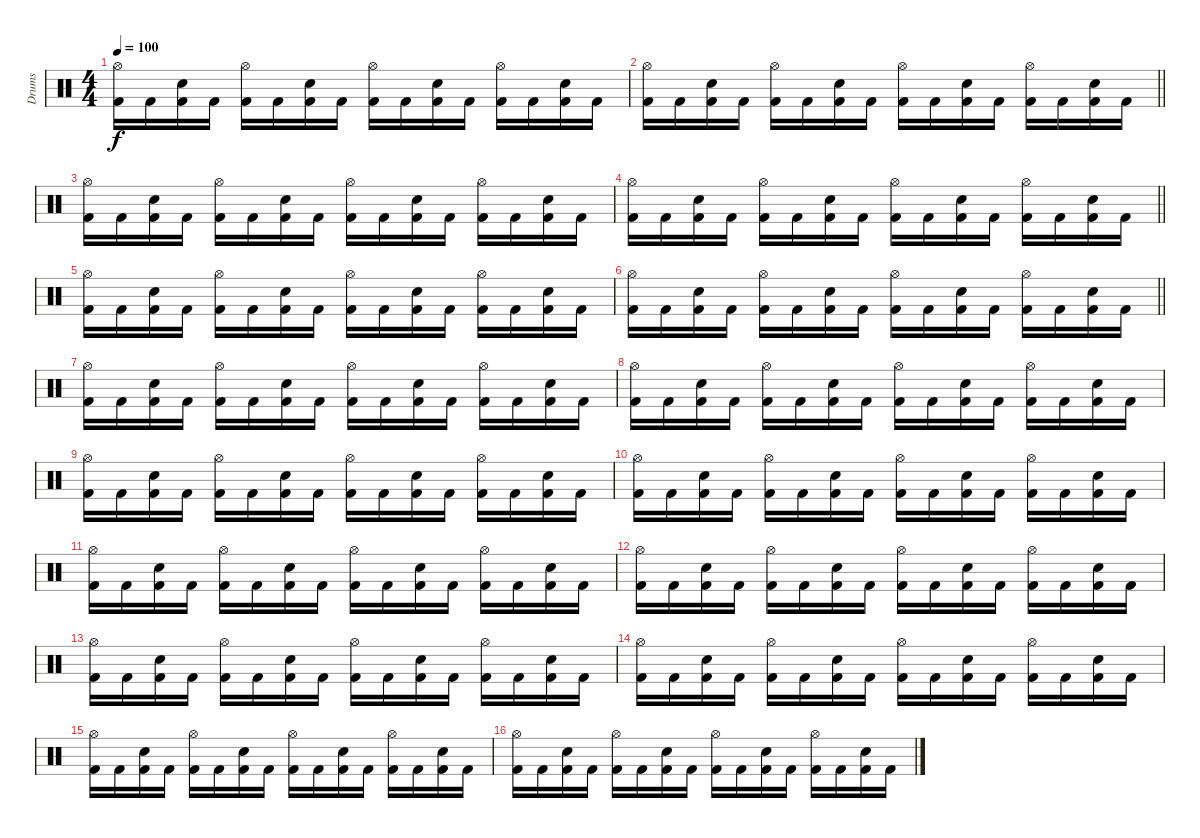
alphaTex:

\track ("Drums" "Drums") {instrument percussion}
\staff {score}
\articulation defaults
\ts (4 4)
\tempo 100
\clef neutral
\ks c
("Hi-Hat (open)" "Kick (hit) 2").16{dy f} "Kick (hit) 2".16 ("Snare (hit) 2" "Kick (hit) 2").16 "Kick (hit) 2".16 ("Hi-Hat (open)" "Kick (hit) 2").16 "Kick (hit) 2".16 ("Snare (hit) 2" "Kick (hit) 2").16 "Kick (hit) 2".16 ("Hi-Hat (open)" "Kick (hit) 2").16 "Kick (hit) 2".16 ("Snare (hit) 2" "Kick (hit) 2").16 "Kick (hit) 2".16 ("Hi-Hat (open)" "Kick (hit) 2").16 "Kick (hit) 2".16 ("Snare (hit) 2" "Kick (hit) 2").16 "Kick (hit) 2".16 |
\barLineRight lightlight
("Hi-Hat (open)" "Kick (hit) 2").16 "Kick (hit) 2".16 ("Snare (hit) 2" "Kick (hit) 2").16 "Kick (hit) 2".16 ("Hi-Hat (open)" "Kick (hit) 2").16 "Kick (hit) 2".16 ("Snare (hit) 2" "Kick (hit) 2").16 "Kick (hit) 2".16 ("Hi-Hat (open)" "Kick (hit) 2").16 "Kick (hit) 2".16 ("Snare (hit) 2" "Kick (hit) 2").16 "Kick (hit) 2".16 ("Hi-Hat (open)" "Kick (hit) 2").16 "Kick (hit) 2".16 ("Snare (hit) 2" "Kick (hit) 2").16 "Kick (hit) 2".16 |
("Hi-Hat (open)" "Kick (hit) 2").16 "Kick (hit) 2".16 ("Snare (hit) 2" "Kick (hit) 2").16 "Kick (hit) 2".16 ("Hi-Hat (open)" "Kick (hit) 2").16 "Kick (hit) 2".16 ("Snare (hit) 2" "Kick (hit) 2").16 "Kick (hit) 2".16 ("Hi-Hat (open)" "Kick (hit) 2").16 "Kick (hit) 2".16 ("Snare (hit) 2" "Kick (hit) 2").16 "Kick (hit) 2".16 ("Hi-Hat (open)" "Kick (hit) 2").16 "Kick (hit) 2".16 ("Snare (hit) 2" "Kick (hit) 2").16 "Kick (hit) 2".16 |
\barLineRight lightlight
("Hi-Hat (open)" "Kick (hit) 2").16 "Kick (hit) 2".16 ("Snare (hit) 2" "Kick (hit) 2").16 "Kick (hit) 2".16 ("Hi-Hat (open)" "Kick (hit) 2").16 "Kick (hit) 2".16 ("Snare (hit) 2" "Kick (hit) 2").16 "Kick (hit) 2".16 ("Hi-Hat (open)" "Kick (hit) 2").16 "Kick (hit) 2".16 ("Snare (hit) 2" "Kick (hit) 2").16 "Kick (hit) 2".16 ("Hi-Hat (open)" "Kick (hit) 2").16 "Kick (hit) 2".16 ("Snare (hit) 2" "Kick (hit) 2").16 "Kick (hit) 2".16 |
("Hi-Hat (open)" "Kick (hit) 2").16 "Kick (hit) 2".16 ("Snare (hit) 2" "Kick (hit) 2").16 "Kick (hit) 2".16 ("Hi-Hat (open)" "Kick (hit) 2").16 "Kick (hit) 2".16 ("Snare (hit) 2" "Kick (hit) 2").16 "Kick (hit) 2".16 ("Hi-Hat (open)" "Kick (hit) 2").16 "Kick (hit) 2".16 ("Snare (hit) 2" "Kick (hit) 2").16 "Kick (hit) 2".16 ("Hi-Hat (open)" "Kick (hit) 2").16 "Kick (hit) 2".16 ("Snare (hit) 2" "Kick (hit) 2").16 "Kick (hit) 2".16 |
\barLineRight lightlight
("Hi-Hat (open)" "Kick (hit) 2").16 "Kick (hit) 2".16 ("Snare (hit) 2" "Kick (hit) 2").16 "Kick (hit) 2".16 ("Hi-Hat (open)" "Kick (hit) 2").16 "Kick (hit) 2".16 ("Snare (hit) 2" "Kick (hit) 2").16 "Kick (hit) 2".16 ("Hi-Hat (open)" "Kick (hit) 2").16 "Kick (hit) 2".16 ("Snare (hit) 2" "Kick (hit) 2").16 "Kick (hit) 2".16 ("Hi-Hat (open)" "Kick (hit) 2").16 "Kick (hit) 2".16 ("Snare (hit) 2" "Kick (hit) 2").16 "Kick (hit) 2".16 |
("Hi-Hat (open)" "Kick (hit) 2").16 "Kick (hit) 2".16 ("Snare (hit) 2" "Kick (hit) 2").16 "Kick (hit) 2".16 ("Hi-Hat (open)" "Kick (hit) 2").16 "Kick (hit) 2".16 ("Snare (hit) 2" "Kick (hit) 2").16 "Kick (hit) 2".16 ("Hi-Hat (open)" "Kick (hit) 2").16 "Kick (hit) 2".16 ("Snare (hit) 2" "Kick (hit) 2").16 "Kick (hit) 2".16 ("Hi-Hat (open)" "Kick (hit) 2").16 "Kick (hit) 2".16 ("Snare (hit) 2" "Kick (hit) 2").16 "Kick (hit) 2".16 |
("Hi-Hat (open)" "Kick (hit) 2").16 "Kick (hit) 2".16 ("Snare (hit) 2" "Kick (hit) 2").16 "Kick (hit) 2".16 ("Hi-Hat (open)" "Kick (hit) 2").16 "Kick (hit) 2".16 ("Snare (hit) 2" "Kick (hit) 2").16 "Kick (hit) 2".16 ("Hi-Hat (open)" "Kick (hit) 2").16 "Kick (hit) 2".16 ("Snare (hit) 2" "Kick (hit) 2").16 "Kick (hit) 2".16 ("Hi-Hat (open)" "Kick (hit) 2").16 "Kick (hit) 2".16 ("Snare (hit) 2" "Kick (hit) 2").16 "Kick (hit) 2".16 |
("Hi-Hat (open)" "Kick (hit) 2").16 "Kick (hit) 2".16 ("Snare (hit) 2" "Kick (hit) 2").16 "Kick (hit) 2".16 ("Hi-Hat (open)" "Kick (hit) 2").16 "Kick (hit) 2".16 ("Snare (hit) 2" "Kick (hit) 2").16 "Kick (hit) 2".16 ("Hi-Hat (open)" "Kick (hit) 2").16 "Kick (hit) 2".16 ("Snare (hit) 2" "Kick (hit) 2").16 "Kick (hit) 2".16 ("Hi-Hat (open)" "Kick (hit) 2").16 "Kick (hit) 2".16 ("Snare (hit) 2" "Kick (hit) 2").16 "Kick (hit) 2".16 |
("Hi-Hat (open)" "Kick (hit) 2").16 "Kick (hit) 2".16 ("Snare (hit) 2" "Kick (hit) 2").16 "Kick (hit) 2".16 ("Hi-Hat (open)" "Kick (hit) 2").16 "Kick (hit) 2".16 ("Snare (hit) 2" "Kick (hit) 2").16 "Kick (hit) 2".16 ("Hi-Hat (open)" "Kick (hit) 2").16 "Kick (hit) 2".16 ("Snare (hit) 2" "Kick (hit) 2").16 "Kick (hit) 2".16 ("Hi-Hat (open)" "Kick (hit) 2").16 "Kick (hit) 2".16 ("Snare (hit) 2" "Kick (hit) 2").16 "Kick (hit) 2".16 |
("Hi-Hat (open)" "Kick (hit) 2").16 "Kick (hit) 2".16 ("Snare (hit) 2" "Kick (hit) 2").16 "Kick (hit) 2".16 ("Hi-Hat (open)" "Kick (hit) 2").16 "Kick (hit) 2".16 ("Snare (hit) 2" "Kick (hit) 2").16 "Kick (hit) 2".16 ("Hi-Hat (open)" "Kick (hit) 2").16 "Kick (hit) 2".16 ("Snare (hit) 2" "Kick (hit) 2").16 "Kick (hit) 2".16 ("Hi-Hat (open)" "Kick (hit) 2").16 "Kick (hit) 2".16 ("Snare (hit) 2" "Kick (hit) 2").16 "Kick (hit) 2".16 |
("Hi-Hat (open)" "Kick (hit) 2").16 "Kick (hit) 2".16 ("Snare (hit) 2" "Kick (hit) 2").16 "Kick (hit) 2".16 ("Hi-Hat (open)" "Kick (hit) 2").16 "Kick (hit) 2".16 ("Snare (hit) 2" "Kick (hit) 2").16 "Kick (hit) 2".16 ("Hi-Hat (open)" "Kick (hit) 2").16 "Kick (hit) 2".16 ("Snare (hit) 2" "Kick (hit) 2").16 "Kick (hit) 2".16 ("Hi-Hat (open)" "Kick (hit) 2").16 "Kick (hit) 2".16 ("Snare (hit) 2" "Kick (hit) 2").16 "Kick (hit) 2".16 |
("Hi-Hat (open)" "Kick (hit) 2").16 "Kick (hit) 2".16 ("Snare (hit) 2" "Kick (hit) 2").16 "Kick (hit) 2".16 ("Hi-Hat (open)" "Kick (hit) 2").16 "Kick (hit) 2".16 ("Snare (hit) 2" "Kick (hit) 2").16 "Kick (hit) 2".16 ("Hi-Hat (open)" "Kick (hit) 2").16 "Kick (hit) 2".16 ("Snare (hit) 2" "Kick (hit) 2").16 "Kick (hit) 2".16 ("Hi-Hat (open)" "Kick (hit) 2").16 "Kick (hit) 2".16 ("Snare (hit) 2" "Kick (hit) 2").16 "Kick (hit) 2".16 |
("Hi-Hat (open)" "Kick (hit) 2").16 "Kick (hit) 2".16 ("Snare (hit) 2" "Kick (hit) 2").16 "Kick (hit) 2".16 ("Hi-Hat (open)" "Kick (hit) 2").16 "Kick (hit) 2".16 ("Snare (hit) 2" "Kick (hit) 2").16 "Kick (hit) 2".16 ("Hi-Hat (open)" "Kick (hit) 2").16 "Kick (hit) 2".16 ("Snare (hit) 2" "Kick (hit) 2").16 "Kick (hit) 2".16 ("Hi-Hat (open)" "Kick (hit) 2").16 "Kick (hit) 2".16 ("Snare (hit) 2" "Kick (hit) 2").16 "Kick (hit) 2".16 |
("Hi-Hat (open)" "Kick (hit) 2").16 "Kick (hit) 2".16 ("Snare (hit) 2" "Kick (hit) 2").16 "Kick (hit) 2".16 ("Hi-Hat (open)" "Kick (hit) 2").16 "Kick (hit) 2".16 ("Snare (hit) 2" "Kick (hit) 2").16 "Kick (hit) 2".16 ("Hi-Hat (open)" "Kick (hit) 2").16 "Kick (hit) 2".16 ("Snare (hit) 2" "Kick (hit) 2").16 "Kick (hit) 2".16 ("Hi-Hat (open)" "Kick (hit) 2").16 "Kick (hit) 2".16 ("Snare (hit) 2" "Kick (hit) 2").16 "Kick (hit) 2".16 |
("Hi-Hat (open)" "Kick (hit) 2").16 "Kick (hit) 2".16 ("Snare (hit) 2" "Kick (hit) 2").16 "Kick (hit) 2".16 ("Hi-Hat (open)" "Kick (hit) 2").16 "Kick (hit) 2".16 ("Snare (hit) 2" "Kick (hit) 2").16 "Kick (hit) 2".16 ("Hi-Hat (open)" "Kick (hit) 2").16 "Kick (hit) 2".16 ("Snare (hit) 2" "Kick (hit) 2").16 "Kick (hit) 2".16 ("Hi-Hat (open)" "Kick (hit) 2").16 "Kick (hit) 2".16 ("Snare (hit) 2" "Kick (hit) 2").16 "Kick (hit) 2".16
